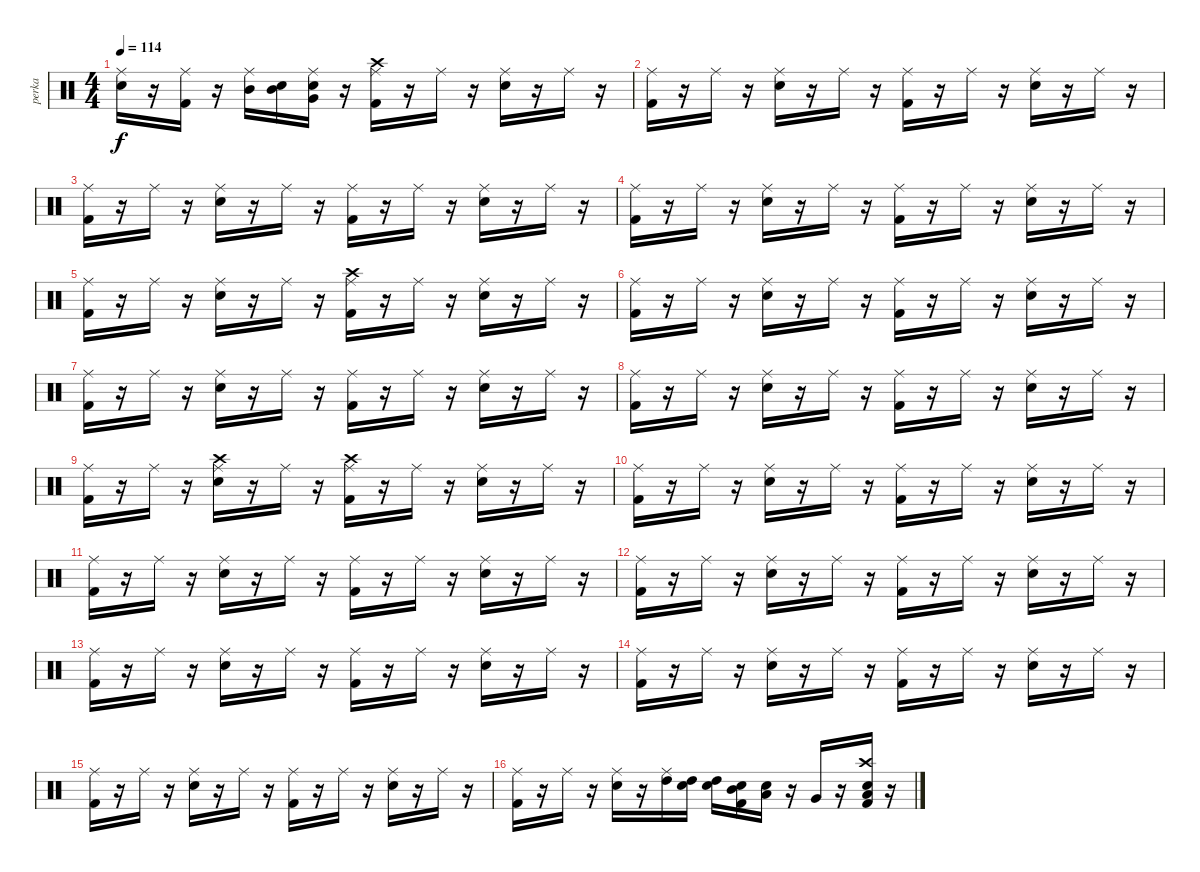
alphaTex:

\track ("perka" "perka") {instrument percussion}
\staff {score}
\articulation defaults
\ts (4 4)
\tempo 114
\clef neutral
\ks c
("Snare (hit) 2" "Ride (middle)").16{dy f} r.16 ("Kick (hit) 2" "Ride (middle)").16 r.16 ("Ride (middle)" "Mid Tom (hit)").16 ("Snare (hit)" "Mid Tom (hit)").16 ("Snare (hit)" "Ride (middle)" "Very Low Tom (hit)").16 r.16 ("Kick (hit) 2" "Ride (middle)" "Crash high (hit)").16 r.16 "Ride (middle)".16 r.16 ("Snare (hit) 2" "Ride (middle)").16 r.16 "Ride (middle)".16 r.16 |
("Kick (hit) 2" "Ride (middle)").16 r.16 "Ride (middle)".16 r.16 ("Snare (hit) 2" "Ride (middle)").16 r.16 "Ride (middle)".16 r.16 ("Kick (hit) 2" "Ride (middle)").16 r.16 "Ride (middle)".16 r.16 ("Snare (hit) 2" "Ride (middle)").16 r.16 "Ride (middle)".16 r.16 |
("Kick (hit) 2" "Ride (middle)").16 r.16 "Ride (middle)".16 r.16 ("Snare (hit) 2" "Ride (middle)").16 r.16 "Ride (middle)".16 r.16 ("Kick (hit) 2" "Ride (middle)").16 r.16 "Ride (middle)".16 r.16 ("Snare (hit) 2" "Ride (middle)").16 r.16 "Ride (middle)".16 r.16 |
("Kick (hit) 2" "Ride (middle)").16 r.16 "Ride (middle)".16 r.16 ("Snare (hit) 2" "Ride (middle)").16 r.16 "Ride (middle)".16 r.16 ("Kick (hit) 2" "Ride (middle)").16 r.16 "Ride (middle)".16 r.16 ("Snare (hit) 2" "Ride (middle)").16 r.16 "Ride (middle)".16 r.16 |
("Kick (hit) 2" "Ride (middle)").16 r.16 "Ride (middle)".16 r.16 ("Snare (hit) 2" "Ride (middle)").16 r.16 "Ride (middle)".16 r.16 ("Crash high (hit)" "Kick (hit) 2" "Ride (middle)").16 r.16 "Ride (middle)".16 r.16 ("Snare (hit) 2" "Ride (middle)").16 r.16 "Ride (middle)".16 r.16 |
("Kick (hit) 2" "Ride (middle)").16 r.16 "Ride (middle)".16 r.16 ("Snare (hit) 2" "Ride (middle)").16 r.16 "Ride (middle)".16 r.16 ("Kick (hit) 2" "Ride (middle)").16 r.16 "Ride (middle)".16 r.16 ("Snare (hit) 2" "Ride (middle)").16 r.16 "Ride (middle)".16 r.16 |
("Kick (hit) 2" "Ride (middle)").16 r.16 "Ride (middle)".16 r.16 ("Snare (hit) 2" "Ride (middle)").16 r.16 "Ride (middle)".16 r.16 ("Kick (hit) 2" "Ride (middle)").16 r.16 "Ride (middle)".16 r.16 ("Snare (hit) 2" "Ride (middle)").16 r.16 "Ride (middle)".16 r.16 |
("Kick (hit) 2" "Ride (middle)").16 r.16 "Ride (middle)".16 r.16 ("Snare (hit) 2" "Ride (middle)").16 r.16 "Ride (middle)".16 r.16 ("Kick (hit) 2" "Ride (middle)").16 r.16 "Ride (middle)".16 r.16 ("Snare (hit) 2" "Ride (middle)").16 r.16 "Ride (middle)".16 r.16 |
("Kick (hit) 2" "Ride (middle)").16 r.16 "Ride (middle)".16 r.16 ("Crash high (hit)" "Snare (hit) 2" "Ride (middle)").16 r.16 "Ride (middle)".16 r.16 ("Crash high (hit)" "Kick (hit) 2" "Ride (middle)").16 r.16 "Ride (middle)".16 r.16 ("Snare (hit) 2" "Ride (middle)").16 r.16 "Ride (middle)".16 r.16 |
("Kick (hit) 2" "Ride (middle)").16 r.16 "Ride (middle)".16 r.16 ("Snare (hit) 2" "Ride (middle)").16 r.16 "Ride (middle)".16 r.16 ("Kick (hit) 2" "Ride (middle)").16 r.16 "Ride (middle)".16 r.16 ("Snare (hit) 2" "Ride (middle)").16 r.16 "Ride (middle)".16 r.16 |
("Kick (hit) 2" "Ride (middle)").16 r.16 "Ride (middle)".16 r.16 ("Snare (hit) 2" "Ride (middle)").16 r.16 "Ride (middle)".16 r.16 ("Kick (hit) 2" "Ride (middle)").16 r.16 "Ride (middle)".16 r.16 ("Snare (hit) 2" "Ride (middle)").16 r.16 "Ride (middle)".16 r.16 |
("Kick (hit) 2" "Ride (middle)").16 r.16 "Ride (middle)".16 r.16 ("Snare (hit) 2" "Ride (middle)").16 r.16 "Ride (middle)".16 r.16 ("Kick (hit) 2" "Ride (middle)").16 r.16 "Ride (middle)".16 r.16 ("Snare (hit) 2" "Ride (middle)").16 r.16 "Ride (middle)".16 r.16 |
("Kick (hit) 2" "Ride (middle)").16 r.16 "Ride (middle)".16 r.16 ("Snare (hit) 2" "Ride (middle)").16 r.16 "Ride (middle)".16 r.16 ("Kick (hit) 2" "Ride (middle)").16 r.16 "Ride (middle)".16 r.16 ("Snare (hit) 2" "Ride (middle)").16 r.16 "Ride (middle)".16 r.16 |
("Kick (hit) 2" "Ride (middle)").16 r.16 "Ride (middle)".16 r.16 ("Snare (hit) 2" "Ride (middle)").16 r.16 "Ride (middle)".16 r.16 ("Kick (hit) 2" "Ride (middle)").16 r.16 "Ride (middle)".16 r.16 ("Snare (hit) 2" "Ride (middle)").16 r.16 "Ride (middle)".16 r.16 |
("Kick (hit) 2" "Ride (middle)").16 r.16 "Ride (middle)".16 r.16 ("Snare (hit) 2" "Ride (middle)").16 r.16 "Ride (middle)".16 r.16 ("Kick (hit) 2" "Ride (middle)").16 r.16 "Ride (middle)".16 r.16 ("Snare (hit) 2" "Ride (middle)").16 r.16 "Ride (middle)".16 r.16 |
("Kick (hit) 2" "Ride (middle)").16 r.16 "Ride (middle)".16 r.16 ("Snare (hit) 2" "Ride (middle)").16 r.16 ("Ride (middle)" "High Tom (hit)").16 ("Snare (hit)" "High Tom (hit)").16 ("Snare (hit)" "High Tom (hit)").16 ("Snare (hit)" "Kick (hit) 2" "Mid Tom (hit)").16 ("Snare (hit)" "Low Tom (hit)").16 r.16 "Very Low Tom (hit)".16 r.16 ("Kick (hit) 2" "Snare (hit) 2" "Low Floor Tom (hit)" "Crash high (hit)").16 r.16
